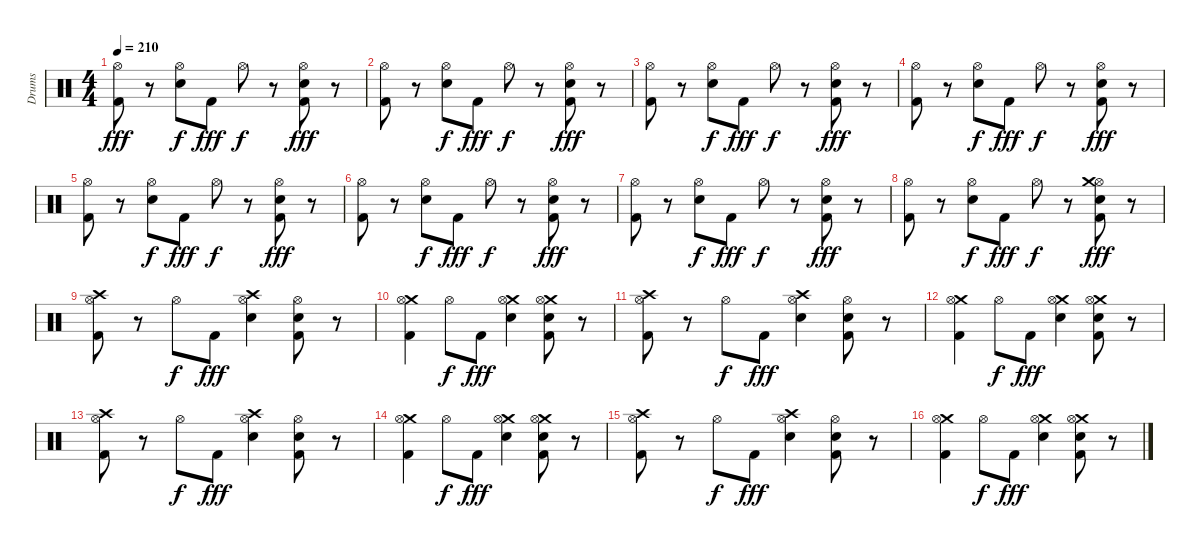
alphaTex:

\track ("Drums" "Drums") {instrument percussion}
\staff {score}
\articulation defaults
\ts (4 4)
\tempo 210
\clef neutral
\ks c
("Hi-Hat (open)" "Kick (hit) 2").8{dy fff} r.8 ("Hi-Hat (open)" "Electric Snare (hit)").8{dy f} "Kick (hit) 2".8{dy fff} "Hi-Hat (open)".8{dy f} r.8 ("Hi-Hat (open)" "Electric Snare (hit)" "Kick (hit) 2").8{dy fff} r.8 |
("Hi-Hat (open)" "Kick (hit) 2").8 r.8 ("Hi-Hat (open)" "Electric Snare (hit)").8{dy f} "Kick (hit) 2".8{dy fff} "Hi-Hat (open)".8{dy f} r.8 ("Hi-Hat (open)" "Electric Snare (hit)" "Kick (hit) 2").8{dy fff} r.8 |
("Hi-Hat (open)" "Kick (hit) 2").8 r.8 ("Hi-Hat (open)" "Electric Snare (hit)").8{dy f} "Kick (hit) 2".8{dy fff} "Hi-Hat (open)".8{dy f} r.8 ("Hi-Hat (open)" "Electric Snare (hit)" "Kick (hit) 2").8{dy fff} r.8 |
("Hi-Hat (open)" "Kick (hit) 2").8 r.8 ("Hi-Hat (open)" "Electric Snare (hit)").8{dy f} "Kick (hit) 2".8{dy fff} "Hi-Hat (open)".8{dy f} r.8 ("Hi-Hat (open)" "Electric Snare (hit)" "Kick (hit) 2").8{dy fff} r.8 |
("Hi-Hat (open)" "Kick (hit) 2").8 r.8 ("Hi-Hat (open)" "Electric Snare (hit)").8{dy f} "Kick (hit) 2".8{dy fff} "Hi-Hat (open)".8{dy f} r.8 ("Hi-Hat (open)" "Electric Snare (hit)" "Kick (hit) 2").8{dy fff} r.8 |
("Hi-Hat (open)" "Kick (hit) 2").8 r.8 ("Hi-Hat (open)" "Electric Snare (hit)").8{dy f} "Kick (hit) 2".8{dy fff} "Hi-Hat (open)".8{dy f} r.8 ("Hi-Hat (open)" "Electric Snare (hit)" "Kick (hit) 2").8{dy fff} r.8 |
("Hi-Hat (open)" "Kick (hit) 2").8 r.8 ("Hi-Hat (open)" "Electric Snare (hit)").8{dy f} "Kick (hit) 2".8{dy fff} "Hi-Hat (open)".8{dy f} r.8 ("Hi-Hat (open)" "Electric Snare (hit)" "Kick (hit) 2").8{dy fff} r.8 |
("Hi-Hat (open)" "Kick (hit) 2").8 r.8 ("Hi-Hat (open)" "Electric Snare (hit)").8{dy f} "Kick (hit) 2".8{dy fff} "Hi-Hat (open)".8{dy f} r.8 ("Hi-Hat (open)" "Electric Snare (hit)" "Kick (hit) 2" "Crash medium (hit)").8{dy fff} r.8 |
("Crash high (hit)" "Hi-Hat (open)" "Kick (hit) 2").8 r.8 "Hi-Hat (open)".8{dy f} "Kick (hit) 2".8{dy fff} ("Crash high (hit)" "Hi-Hat (open)" "Electric Snare (hit)").4 ("Hi-Hat (open)" "Electric Snare (hit)" "Kick (hit) 2").8 r.8 |
("Crash medium (hit)" "Hi-Hat (open)" "Kick (hit) 2").4 "Hi-Hat (open)".8{dy f} "Kick (hit) 2".8{dy fff} ("Crash medium (hit)" "Hi-Hat (open)" "Electric Snare (hit)").4 ("Crash medium (hit)" "Hi-Hat (open)" "Electric Snare (hit)" "Kick (hit) 2").8 r.8 |
("Crash high (hit)" "Hi-Hat (open)" "Kick (hit) 2").8 r.8 "Hi-Hat (open)".8{dy f} "Kick (hit) 2".8{dy fff} ("Crash high (hit)" "Hi-Hat (open)" "Electric Snare (hit)").4 ("Hi-Hat (open)" "Electric Snare (hit)" "Kick (hit) 2").8 r.8 |
("Crash medium (hit)" "Hi-Hat (open)" "Kick (hit) 2").4 "Hi-Hat (open)".8{dy f} "Kick (hit) 2".8{dy fff} ("Crash medium (hit)" "Hi-Hat (open)" "Electric Snare (hit)").4 ("Crash medium (hit)" "Hi-Hat (open)" "Electric Snare (hit)" "Kick (hit) 2").8 r.8 |
("Crash high (hit)" "Hi-Hat (open)" "Kick (hit) 2").8 r.8 "Hi-Hat (open)".8{dy f} "Kick (hit) 2".8{dy fff} ("Crash high (hit)" "Hi-Hat (open)" "Electric Snare (hit)").4 ("Hi-Hat (open)" "Electric Snare (hit)" "Kick (hit) 2").8 r.8 |
("Crash medium (hit)" "Hi-Hat (open)" "Kick (hit) 2").4 "Hi-Hat (open)".8{dy f} "Kick (hit) 2".8{dy fff} ("Crash medium (hit)" "Hi-Hat (open)" "Electric Snare (hit)").4 ("Crash medium (hit)" "Hi-Hat (open)" "Electric Snare (hit)" "Kick (hit) 2").8 r.8 |
("Crash high (hit)" "Hi-Hat (open)" "Kick (hit) 2").8 r.8 "Hi-Hat (open)".8{dy f} "Kick (hit) 2".8{dy fff} ("Crash high (hit)" "Hi-Hat (open)" "Electric Snare (hit)").4 ("Hi-Hat (open)" "Electric Snare (hit)" "Kick (hit) 2").8 r.8 |
("Crash medium (hit)" "Hi-Hat (open)" "Kick (hit) 2").4 "Hi-Hat (open)".8{dy f} "Kick (hit) 2".8{dy fff} ("Crash medium (hit)" "Hi-Hat (open)" "Electric Snare (hit)").4 ("Crash medium (hit)" "Hi-Hat (open)" "Electric Snare (hit)" "Kick (hit) 2").8 r.8
